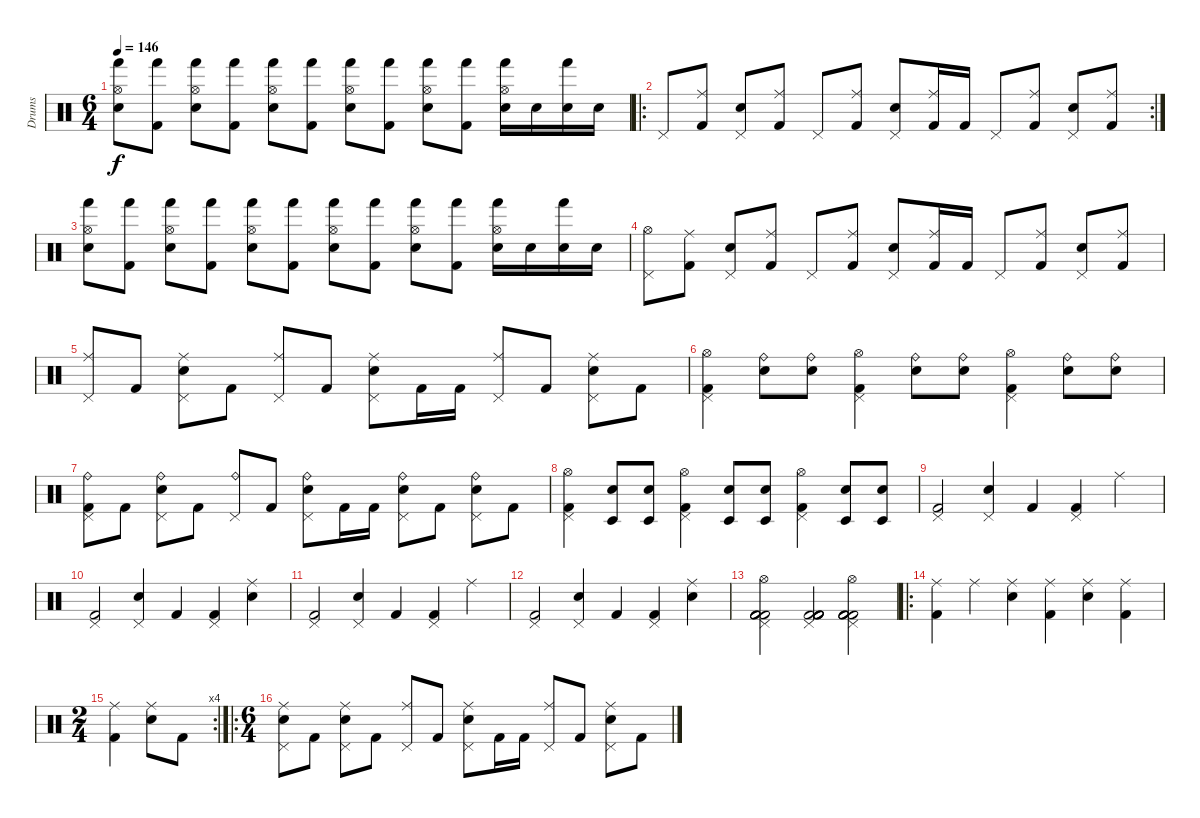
\track ("Drums" "Drums") {instrument percussion}
\staff {score}
\articulation defaults
\ts (6 4)
\tempo 146
\clef neutral
\ks c
("Hi-Hat (open)" "Hand (hit)" "Electric Snare (hit)").8{dy f} ("Hand (hit)" "Kick (hit) 2").8 ("Hi-Hat (open)" "Hand (hit)" "Electric Snare (hit)").8 ("Hand (hit)" "Kick (hit) 2").8 ("Hi-Hat (open)" "Hand (hit)" "Electric Snare (hit)").8 ("Hand (hit)" "Kick (hit) 2").8 ("Hi-Hat (open)" "Hand (hit)" "Electric Snare (hit)").8 ("Hand (hit)" "Kick (hit) 2").8 ("Hi-Hat (open)" "Hand (hit)" "Electric Snare (hit)").8 ("Hand (hit)" "Kick (hit) 2").8 ("Hi-Hat (open)" "Hand (hit)" "Electric Snare (hit)").16 "Electric Snare (hit)".16 ("Hand (hit)" "Electric Snare (hit)").16 "Electric Snare (hit)".16 |
\ro
\rc 2 "Pedal Hi-Hat (hit)".8
("Ride (middle)" "Kick (hit) 2").8 ("Pedal Hi-Hat (hit)" "Electric Snare (hit)").8 ("Ride (middle)" "Kick (hit) 2").8 "Pedal Hi-Hat (hit)".8 ("Ride (middle)" "Kick (hit) 2").8 ("Pedal Hi-Hat (hit)" "Electric Snare (hit)").8 ("Ride (middle)" "Kick (hit) 2").16 "Kick (hit) 2".16 "Pedal Hi-Hat (hit)".8 ("Ride (middle)" "Kick (hit) 2").8 ("Pedal Hi-Hat (hit)" "Electric Snare (hit)").8 ("Ride (middle)" "Kick (hit) 2").8 |
("Hi-Hat (open)" "Hand (hit)" "Electric Snare (hit)").8 ("Hand (hit)" "Kick (hit) 2").8 ("Hi-Hat (open)" "Hand (hit)" "Electric Snare (hit)").8 ("Hand (hit)" "Kick (hit) 2").8 ("Hi-Hat (open)" "Hand (hit)" "Electric Snare (hit)").8 ("Hand (hit)" "Kick (hit) 2").8 ("Hi-Hat (open)" "Hand (hit)" "Electric Snare (hit)").8 ("Hand (hit)" "Kick (hit) 2").8 ("Hi-Hat (open)" "Hand (hit)" "Electric Snare (hit)").8 ("Hand (hit)" "Kick (hit) 2").8 ("Hi-Hat (open)" "Hand (hit)" "Electric Snare (hit)").16 "Electric Snare (hit)".16 ("Hand (hit)" "Electric Snare (hit)").16 "Electric Snare (hit)".16 |
("Pedal Hi-Hat (hit)" "Hi-Hat (open)").8 ("Ride (middle)" "Kick (hit) 2").8 ("Pedal Hi-Hat (hit)" "Electric Snare (hit)").8 ("Ride (middle)" "Kick (hit) 2").8 "Pedal Hi-Hat (hit)".8 ("Ride (middle)" "Kick (hit) 2").8 ("Pedal Hi-Hat (hit)" "Electric Snare (hit)").8 ("Ride (middle)" "Kick (hit) 2").16 "Kick (hit) 2".16 "Pedal Hi-Hat (hit)".8 ("Ride (middle)" "Kick (hit) 2").8 ("Pedal Hi-Hat (hit)" "Electric Snare (hit)").8 ("Ride (middle)" "Kick (hit) 2").8 |
("Pedal Hi-Hat (hit)" "Ride (middle)").8 "Kick (hit) 2".8 ("Pedal Hi-Hat (hit)" "Electric Snare (hit)" "Ride (middle)").8 "Kick (hit) 2".8 ("Pedal Hi-Hat (hit)" "Ride (middle)").8 "Kick (hit) 2".8 ("Pedal Hi-Hat (hit)" "Electric Snare (hit)" "Ride (middle)").8 "Kick (hit) 2".16 "Kick (hit) 2".16 ("Pedal Hi-Hat (hit)" "Ride (middle)").8 "Kick (hit) 2".8 ("Pedal Hi-Hat (hit)" "Electric Snare (hit)" "Ride (middle)").8 "Kick (hit) 2".8 |
("Pedal Hi-Hat (hit)" "Kick (hit) 2" "Hi-Hat (open)").4 ("Ride (bell)" "Electric Snare (hit)").8 ("Ride (bell)" "Electric Snare (hit)").8 ("Pedal Hi-Hat (hit)" "Kick (hit) 2" "Hi-Hat (open)").4 ("Ride (bell)" "Electric Snare (hit)").8 ("Ride (bell)" "Electric Snare (hit)").8 ("Pedal Hi-Hat (hit)" "Kick (hit) 2" "Hi-Hat (open)").4 ("Ride (bell)" "Electric Snare (hit)").8 ("Ride (bell)" "Electric Snare (hit)").8 |
("Pedal Hi-Hat (hit)" "Ride (bell)" "Kick (hit) 2").8 "Kick (hit) 2".8 ("Pedal Hi-Hat (hit)" "Electric Snare (hit)" "Ride (bell)").8 "Kick (hit) 2".8 ("Pedal Hi-Hat (hit)" "Ride (bell)").8 "Kick (hit) 2".8 ("Pedal Hi-Hat (hit)" "Electric Snare (hit)" "Ride (bell)").8 "Kick (hit) 2".16 "Kick (hit) 2".16 ("Pedal Hi-Hat (hit)" "Electric Snare (hit)" "Ride (bell)").8 "Kick (hit) 2".8 ("Pedal Hi-Hat (hit)" "Electric Snare (hit)" "Ride (bell)").8 "Kick (hit) 2".8 |
("Pedal Hi-Hat (hit)" "Kick (hit) 2" "Hi-Hat (open)").4 ("Timbale low (hit)" "Electric Snare (hit)").8 ("Timbale low (hit)" "Electric Snare (hit)").8 ("Pedal Hi-Hat (hit)" "Kick (hit) 2" "Hi-Hat (open)").4 ("Timbale low (hit)" "Electric Snare (hit)").8 ("Timbale low (hit)" "Electric Snare (hit)").8 ("Pedal Hi-Hat (hit)" "Kick (hit) 2" "Hi-Hat (open)").4 ("Timbale low (hit)" "Electric Snare (hit)").8 ("Timbale low (hit)" "Electric Snare (hit)").8 |
("Pedal Hi-Hat (hit)" "Kick (hit) 2").2 ("Pedal Hi-Hat (hit)" "Electric Snare (hit)").4 "Kick (hit) 2".4 ("Pedal Hi-Hat (hit)" "Kick (hit) 2").4 "Ride (middle)".4 |
("Pedal Hi-Hat (hit)" "Kick (hit) 2").2 ("Pedal Hi-Hat (hit)" "Electric Snare (hit)").4 "Kick (hit) 2".4 ("Pedal Hi-Hat (hit)" "Kick (hit) 2").4 ("Ride (middle)" "Electric Snare (hit)").4 |
("Pedal Hi-Hat (hit)" "Kick (hit) 2").2 ("Pedal Hi-Hat (hit)" "Electric Snare (hit)").4 "Kick (hit) 2".4 ("Pedal Hi-Hat (hit)" "Kick (hit) 2").4 "Ride (middle)".4 |
("Pedal Hi-Hat (hit)" "Kick (hit) 2").2 ("Pedal Hi-Hat (hit)" "Electric Snare (hit)").4 "Kick (hit) 2".4 ("Pedal Hi-Hat (hit)" "Kick (hit) 2").4 ("Ride (middle)" "Electric Snare (hit)").4 |
("Pedal Hi-Hat (hit)" "Hi-Hat (open)" "Kick (hit) 2" "Kick (hit) 2" "Kick (hit) 2" "Kick (hit) 2").2 ("Pedal Hi-Hat (hit)" "Kick (hit) 2" "Kick (hit) 2" "Kick (hit) 2" "Kick (hit) 2" "Kick (hit) 2").2 ("Pedal Hi-Hat (hit)" "Hi-Hat (open)" "Kick (hit) 2" "Kick (hit) 2" "Kick (hit) 2" "Kick (hit) 2").2 |
\ro
("Ride (middle)" "Kick (hit) 2").4 "Ride (middle)".4 ("Ride (middle)" "Electric Snare (hit)").4 ("Ride (middle)" "Kick (hit) 2").4 ("Ride (middle)" "Electric Snare (hit)").4 ("Ride (middle)" "Kick (hit) 2").4 |
\rc 4
\ts (2 4)
("Ride (middle)" "Kick (hit) 2").4 ("Ride (middle)" "Electric Snare (hit)").8 "Kick (hit) 2".8 |
\ro
\ts (6 4)
("Electric Snare (hit)" "Pedal Hi-Hat (hit)" "Ride (middle)").8 "Kick (hit) 2".8 ("Pedal Hi-Hat (hit)" "Electric Snare (hit)" "Ride (middle)").8 "Kick (hit) 2".8 ("Pedal Hi-Hat (hit)" "Ride (middle)").8 "Kick (hit) 2".8 ("Pedal Hi-Hat (hit)" "Electric Snare (hit)" "Ride (middle)").8 "Kick (hit) 2".16 "Kick (hit) 2".16 ("Pedal Hi-Hat (hit)" "Ride (middle)").8 "Kick (hit) 2".8 ("Pedal Hi-Hat (hit)" "Electric Snare (hit)" "Ride (middle)").8 "Kick (hit) 2".8
